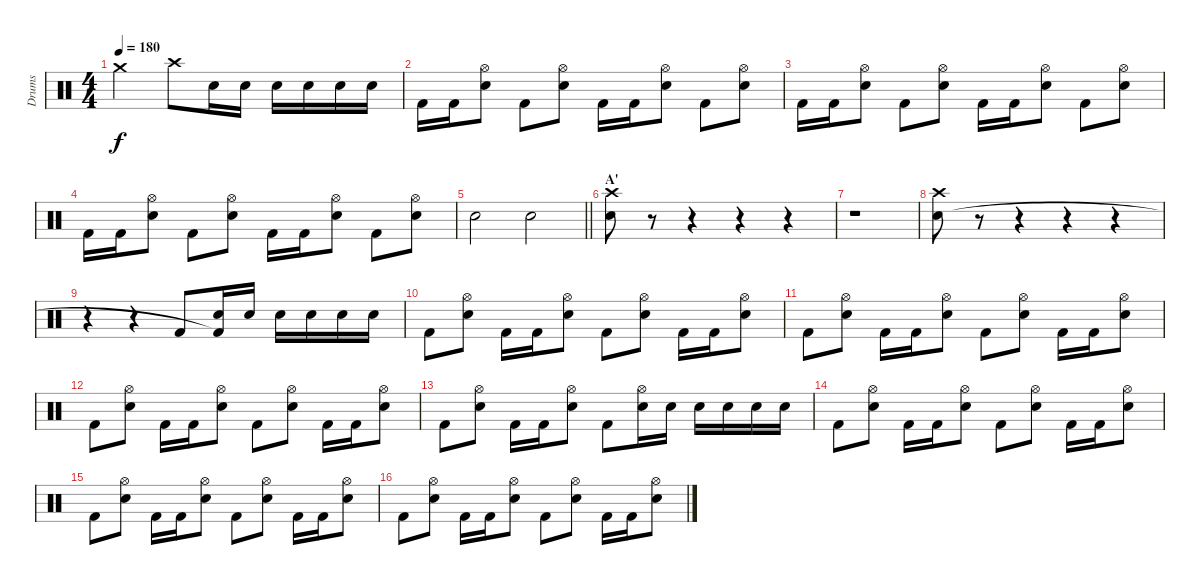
\track ("Drums" "Drums") {instrument percussion}
\staff {score}
\articulation defaults
\ts (4 4)
\tempo 180
\clef neutral
\ks c "Crash medium (hit)".2{dy f} "Crash high (hit)".8 "Electric Snare (hit)".16 "Electric Snare (hit)".16 "Electric Snare (hit)".16 "Electric Snare (hit)".16 "Electric Snare (hit)".16 "Electric Snare (hit)".16
|
"Kick (hit) 2".16 "Kick (hit) 2".16 ("Hi-Hat (open)" "Electric Snare (hit)").8 "Kick (hit) 2".8 ("Hi-Hat (open)" "Electric Snare (hit)").8 "Kick (hit) 2".16 "Kick (hit) 2".16 ("Hi-Hat (open)" "Electric Snare (hit)").8 "Kick (hit) 2".8 ("Hi-Hat (open)" "Electric Snare (hit)").8 |
"Kick (hit) 2".16 "Kick (hit) 2".16 ("Hi-Hat (open)" "Electric Snare (hit)").8 "Kick (hit) 2".8 ("Hi-Hat (open)" "Electric Snare (hit)").8 "Kick (hit) 2".16 "Kick (hit) 2".16 ("Hi-Hat (open)" "Electric Snare (hit)").8 "Kick (hit) 2".8 ("Hi-Hat (open)" "Electric Snare (hit)").8 |
"Kick (hit) 2".16 "Kick (hit) 2".16 ("Hi-Hat (open)" "Electric Snare (hit)").8 "Kick (hit) 2".8 ("Hi-Hat (open)" "Electric Snare (hit)").8 "Kick (hit) 2".16 "Kick (hit) 2".16 ("Hi-Hat (open)" "Electric Snare (hit)").8 "Kick (hit) 2".8 ("Hi-Hat (open)" "Electric Snare (hit)").8 |
\barLineRight lightlight "Electric Snare (hit)".2 "Electric Snare (hit)".2
|
\section ("" "A'")
("Crash high (hit)" "Electric Snare (hit)").8 r.8 r.4 r.4 r.4 |
r.1 |
("Crash high (hit)" "Electric Snare (hit)").8 r.8 r.4 r.4 r.4 |
r.4 r.4 "Kick (hit) 2".8 ("Electric Snare (hit)" "Kick (hit) 2"{t}).16 "Electric Snare (hit)".16 "Electric Snare (hit)".16 "Electric Snare (hit)".16 "Electric Snare (hit)".16 "Electric Snare (hit)".16 |
"Kick (hit) 2".8 ("Hi-Hat (open)" "Electric Snare (hit)").8 "Kick (hit) 2".16 "Kick (hit) 2".16 ("Hi-Hat (open)" "Electric Snare (hit)").8 "Kick (hit) 2".8 ("Hi-Hat (open)" "Electric Snare (hit)").8 "Kick (hit) 2".16 "Kick (hit) 2".16 ("Hi-Hat (open)" "Electric Snare (hit)").8 |
"Kick (hit) 2".8 ("Hi-Hat (open)" "Electric Snare (hit)").8 "Kick (hit) 2".16 "Kick (hit) 2".16 ("Hi-Hat (open)" "Electric Snare (hit)").8 "Kick (hit) 2".8 ("Hi-Hat (open)" "Electric Snare (hit)").8 "Kick (hit) 2".16 "Kick (hit) 2".16 ("Hi-Hat (open)" "Electric Snare (hit)").8 |
"Kick (hit) 2".8 ("Hi-Hat (open)" "Electric Snare (hit)").8 "Kick (hit) 2".16 "Kick (hit) 2".16 ("Hi-Hat (open)" "Electric Snare (hit)").8 "Kick (hit) 2".8 ("Hi-Hat (open)" "Electric Snare (hit)").8 "Kick (hit) 2".16 "Kick (hit) 2".16 ("Hi-Hat (open)" "Electric Snare (hit)").8 |
"Kick (hit) 2".8 ("Hi-Hat (open)" "Electric Snare (hit)").8 "Kick (hit) 2".16 "Kick (hit) 2".16 ("Hi-Hat (open)" "Electric Snare (hit)").8 "Kick (hit) 2".8 ("Hi-Hat (open)" "Electric Snare (hit)").16 "Electric Snare (hit)".16 "Electric Snare (hit)".16 "Electric Snare (hit)".16 "Electric Snare (hit)".16 "Electric Snare (hit)".16 |
"Kick (hit) 2".8 ("Hi-Hat (open)" "Electric Snare (hit)").8 "Kick (hit) 2".16 "Kick (hit) 2".16 ("Hi-Hat (open)" "Electric Snare (hit)").8 "Kick (hit) 2".8 ("Hi-Hat (open)" "Electric Snare (hit)").8 "Kick (hit) 2".16 "Kick (hit) 2".16 ("Hi-Hat (open)" "Electric Snare (hit)").8 |
"Kick (hit) 2".8 ("Hi-Hat (open)" "Electric Snare (hit)").8 "Kick (hit) 2".16 "Kick (hit) 2".16 ("Hi-Hat (open)" "Electric Snare (hit)").8 "Kick (hit) 2".8 ("Hi-Hat (open)" "Electric Snare (hit)").8 "Kick (hit) 2".16 "Kick (hit) 2".16 ("Hi-Hat (open)" "Electric Snare (hit)").8 |
"Kick (hit) 2".8 ("Hi-Hat (open)" "Electric Snare (hit)").8 "Kick (hit) 2".16 "Kick (hit) 2".16 ("Hi-Hat (open)" "Electric Snare (hit)").8 "Kick (hit) 2".8 ("Hi-Hat (open)" "Electric Snare (hit)").8 "Kick (hit) 2".16 "Kick (hit) 2".16 ("Hi-Hat (open)" "Electric Snare (hit)").8
